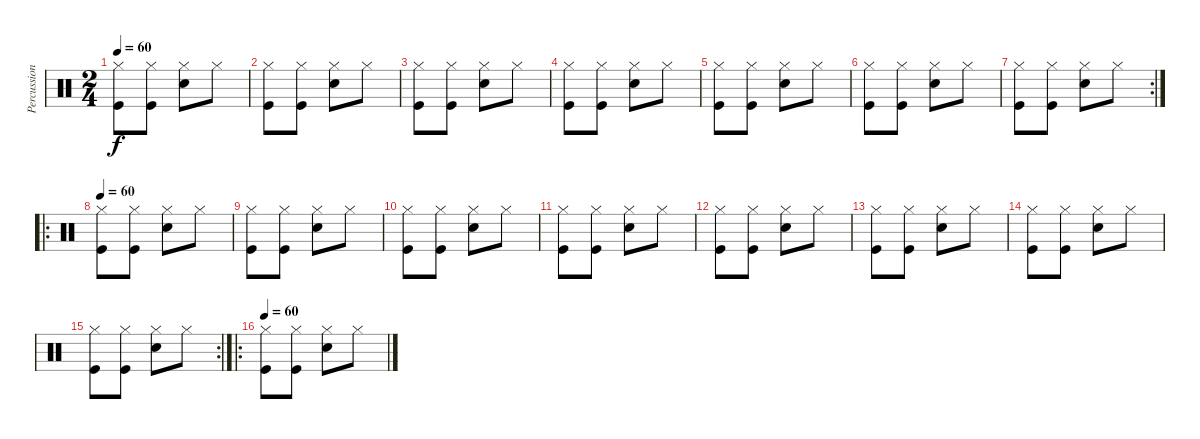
\track ("Percussions" "Percussion") {instrument percussion}
\staff {score}
\articulation defaults
\ts (2 4)
\tempo 60
\clef neutral
\ks c
("Hi-Hat (closed)" "Kick (hit)").8{dy f} ("Hi-Hat (closed)" "Kick (hit)").8 ("Hi-Hat (closed)" "Electric Snare (hit)").8 "Hi-Hat (closed)".8 |
("Hi-Hat (closed)" "Kick (hit)").8 ("Hi-Hat (closed)" "Kick (hit)").8 ("Hi-Hat (closed)" "Electric Snare (hit)").8 "Hi-Hat (closed)".8 |
("Hi-Hat (closed)" "Kick (hit)").8 ("Hi-Hat (closed)" "Kick (hit)").8 ("Hi-Hat (closed)" "Electric Snare (hit)").8 "Hi-Hat (closed)".8 |
("Hi-Hat (closed)" "Kick (hit)").8 ("Hi-Hat (closed)" "Kick (hit)").8 ("Hi-Hat (closed)" "Electric Snare (hit)").8 "Hi-Hat (closed)".8 |
("Hi-Hat (closed)" "Kick (hit)").8 ("Hi-Hat (closed)" "Kick (hit)").8 ("Hi-Hat (closed)" "Electric Snare (hit)").8 "Hi-Hat (closed)".8 |
("Hi-Hat (closed)" "Kick (hit)").8 ("Hi-Hat (closed)" "Kick (hit)").8 ("Hi-Hat (closed)" "Electric Snare (hit)").8 "Hi-Hat (closed)".8 |
\rc 2
("Hi-Hat (closed)" "Kick (hit)").8 ("Hi-Hat (closed)" "Kick (hit)").8 ("Hi-Hat (closed)" "Electric Snare (hit)").8 "Hi-Hat (closed)".8 |
\ro
\tempo 60
("Hi-Hat (closed)" "Kick (hit)").8 ("Hi-Hat (closed)" "Kick (hit)").8 ("Hi-Hat (closed)" "Electric Snare (hit)").8 "Hi-Hat (closed)".8 |
("Hi-Hat (closed)" "Kick (hit)").8 ("Hi-Hat (closed)" "Kick (hit)").8 ("Hi-Hat (closed)" "Electric Snare (hit)").8 "Hi-Hat (closed)".8 |
("Hi-Hat (closed)" "Kick (hit)").8 ("Hi-Hat (closed)" "Kick (hit)").8 ("Hi-Hat (closed)" "Electric Snare (hit)").8 "Hi-Hat (closed)".8 |
("Hi-Hat (closed)" "Kick (hit)").8 ("Hi-Hat (closed)" "Kick (hit)").8 ("Hi-Hat (closed)" "Electric Snare (hit)").8 "Hi-Hat (closed)".8 |
("Hi-Hat (closed)" "Kick (hit)").8 ("Hi-Hat (closed)" "Kick (hit)").8 ("Hi-Hat (closed)" "Electric Snare (hit)").8 "Hi-Hat (closed)".8 |
("Hi-Hat (closed)" "Kick (hit)").8 ("Hi-Hat (closed)" "Kick (hit)").8 ("Hi-Hat (closed)" "Electric Snare (hit)").8 "Hi-Hat (closed)".8 |
("Hi-Hat (closed)" "Kick (hit)").8 ("Hi-Hat (closed)" "Kick (hit)").8 ("Hi-Hat (closed)" "Electric Snare (hit)").8 "Hi-Hat (closed)".8 |
\rc 2
("Hi-Hat (closed)" "Kick (hit)").8 ("Hi-Hat (closed)" "Kick (hit)").8 ("Hi-Hat (closed)" "Electric Snare (hit)").8 "Hi-Hat (closed)".8 |
\ro
\tempo 60
("Hi-Hat (closed)" "Kick (hit)").8 ("Hi-Hat (closed)" "Kick (hit)").8 ("Hi-Hat (closed)" "Electric Snare (hit)").8 "Hi-Hat (closed)".8
